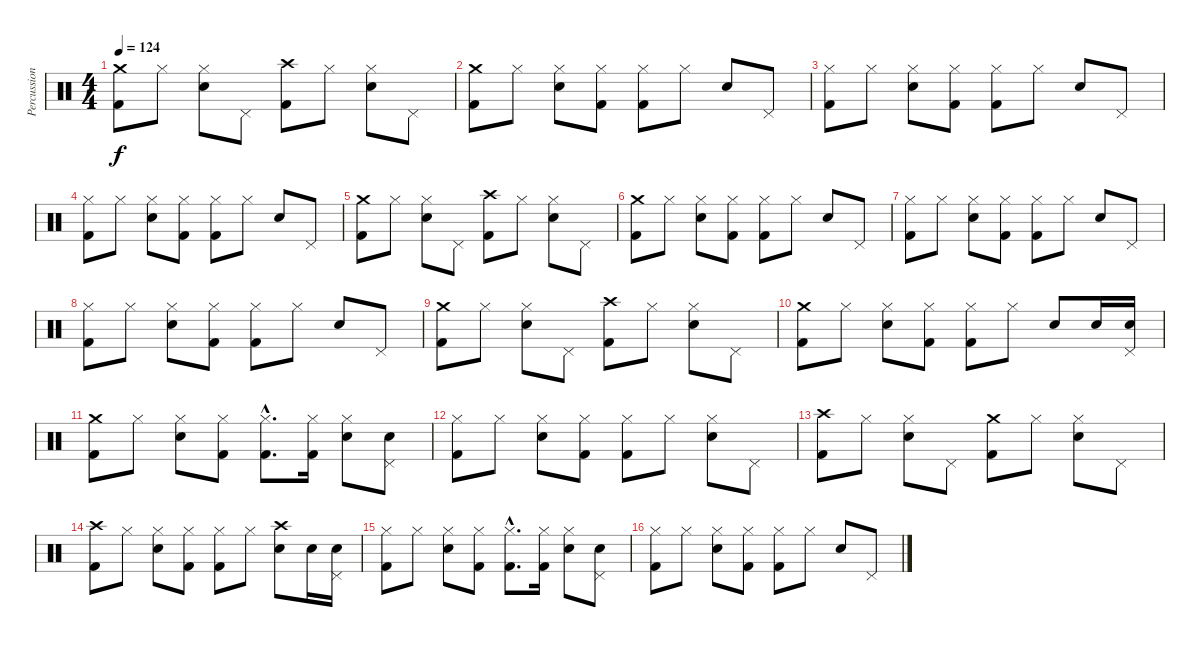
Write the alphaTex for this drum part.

\track ("Percussions" "Percussion") {instrument percussion}
\staff {score}
\articulation defaults
\ts (4 4)
\tempo 124
\clef neutral
\ks c
("Crash medium (hit)" "Kick (hit) 2").8{dy f} "Hi-Hat (closed)".8 ("Hi-Hat (closed)" "Electric Snare (hit)").8 "Pedal Hi-Hat (hit)".8 ("Crash high (hit)" "Kick (hit) 2").8 "Hi-Hat (closed)".8 ("Hi-Hat (closed)" "Electric Snare (hit)").8 "Pedal Hi-Hat (hit)".8 |
("Crash medium (hit)" "Kick (hit) 2").8 "Hi-Hat (closed)".8 ("Hi-Hat (closed)" "Electric Snare (hit)").8 ("Hi-Hat (closed)" "Kick (hit) 2").8 ("Hi-Hat (closed)" "Kick (hit) 2").8 "Hi-Hat (closed)".8 "Electric Snare (hit)".8 "Pedal Hi-Hat (hit)".8 |
("Hi-Hat (closed)" "Kick (hit) 2").8 "Hi-Hat (closed)".8 ("Hi-Hat (closed)" "Electric Snare (hit)").8 ("Hi-Hat (closed)" "Kick (hit) 2").8 ("Hi-Hat (closed)" "Kick (hit) 2").8 "Hi-Hat (closed)".8 "Electric Snare (hit)".8 "Pedal Hi-Hat (hit)".8 |
("Hi-Hat (closed)" "Kick (hit) 2").8 "Hi-Hat (closed)".8 ("Hi-Hat (closed)" "Electric Snare (hit)").8 ("Hi-Hat (closed)" "Kick (hit) 2").8 ("Hi-Hat (closed)" "Kick (hit) 2").8 "Hi-Hat (closed)".8 "Electric Snare (hit)".8 "Pedal Hi-Hat (hit)".8 |
("Crash medium (hit)" "Kick (hit) 2").8 "Hi-Hat (closed)".8 ("Hi-Hat (closed)" "Electric Snare (hit)").8 "Pedal Hi-Hat (hit)".8 ("Crash high (hit)" "Kick (hit) 2").8 "Hi-Hat (closed)".8 ("Hi-Hat (closed)" "Electric Snare (hit)").8 "Pedal Hi-Hat (hit)".8 |
("Crash medium (hit)" "Kick (hit) 2").8 "Hi-Hat (closed)".8 ("Hi-Hat (closed)" "Electric Snare (hit)").8 ("Hi-Hat (closed)" "Kick (hit) 2").8 ("Hi-Hat (closed)" "Kick (hit) 2").8 "Hi-Hat (closed)".8 "Electric Snare (hit)".8 "Pedal Hi-Hat (hit)".8 |
("Hi-Hat (closed)" "Kick (hit) 2").8 "Hi-Hat (closed)".8 ("Hi-Hat (closed)" "Electric Snare (hit)").8 ("Hi-Hat (closed)" "Kick (hit) 2").8 ("Hi-Hat (closed)" "Kick (hit) 2").8 "Hi-Hat (closed)".8 "Electric Snare (hit)".8 "Pedal Hi-Hat (hit)".8 |
("Hi-Hat (closed)" "Kick (hit) 2").8 "Hi-Hat (closed)".8 ("Hi-Hat (closed)" "Electric Snare (hit)").8 ("Hi-Hat (closed)" "Kick (hit) 2").8 ("Hi-Hat (closed)" "Kick (hit) 2").8 "Hi-Hat (closed)".8 "Electric Snare (hit)".8 "Pedal Hi-Hat (hit)".8 |
("Crash medium (hit)" "Kick (hit) 2").8 "Hi-Hat (closed)".8 ("Hi-Hat (closed)" "Electric Snare (hit)").8 "Pedal Hi-Hat (hit)".8 ("Crash high (hit)" "Kick (hit) 2").8 "Hi-Hat (closed)".8 ("Hi-Hat (closed)" "Electric Snare (hit)").8 "Pedal Hi-Hat (hit)".8 |
("Crash medium (hit)" "Kick (hit) 2").8 "Hi-Hat (closed)".8 ("Hi-Hat (closed)" "Electric Snare (hit)").8 ("Hi-Hat (closed)" "Kick (hit) 2").8 ("Hi-Hat (closed)" "Kick (hit) 2").8 "Hi-Hat (closed)".8 "Electric Snare (hit)".8 "Electric Snare (hit)".16 ("Pedal Hi-Hat (hit)" "Electric Snare (hit)").16 |
("Crash medium (hit)" "Kick (hit) 2").8 "Hi-Hat (closed)".8 ("Hi-Hat (closed)" "Electric Snare (hit)").8 ("Hi-Hat (closed)" "Kick (hit) 2").8 ("Hi-Hat (closed)"{hac} "Kick (hit) 2"{hac}).8{d} ("Hi-Hat (closed)" "Kick (hit) 2").16 ("Hi-Hat (closed)" "Electric Snare (hit)").8 ("Pedal Hi-Hat (hit)" "Electric Snare (hit)").8 |
("Hi-Hat (closed)" "Kick (hit) 2").8 "Hi-Hat (closed)".8 ("Hi-Hat (closed)" "Electric Snare (hit)").8 ("Hi-Hat (closed)" "Kick (hit) 2").8 ("Hi-Hat (closed)" "Kick (hit) 2").8 "Hi-Hat (closed)".8 ("Hi-Hat (closed)" "Electric Snare (hit)").8 "Pedal Hi-Hat (hit)".8 |
("Crash high (hit)" "Kick (hit) 2").8 "Hi-Hat (closed)".8 ("Hi-Hat (closed)" "Electric Snare (hit)").8 "Pedal Hi-Hat (hit)".8 ("Crash medium (hit)" "Kick (hit) 2").8 "Hi-Hat (closed)".8 ("Hi-Hat (closed)" "Electric Snare (hit)").8 "Pedal Hi-Hat (hit)".8 |
("Crash high (hit)" "Kick (hit) 2").8 "Hi-Hat (closed)".8 ("Hi-Hat (closed)" "Electric Snare (hit)").8 ("Hi-Hat (closed)" "Kick (hit) 2").8 ("Hi-Hat (closed)" "Kick (hit) 2").8 "Hi-Hat (closed)".8 ("Crash high (hit)" "Electric Snare (hit)").8 "Electric Snare (hit)".16 ("Pedal Hi-Hat (hit)" "Electric Snare (hit)").16 |
("Hi-Hat (closed)" "Kick (hit) 2").8 "Hi-Hat (closed)".8 ("Hi-Hat (closed)" "Electric Snare (hit)").8 ("Hi-Hat (closed)" "Kick (hit) 2").8 ("Hi-Hat (closed)"{hac} "Kick (hit) 2"{hac}).8{d} ("Hi-Hat (closed)" "Kick (hit) 2").16 ("Hi-Hat (closed)" "Electric Snare (hit)").8 ("Pedal Hi-Hat (hit)" "Electric Snare (hit)").8 |
("Hi-Hat (closed)" "Kick (hit) 2").8 "Hi-Hat (closed)".8 ("Hi-Hat (closed)" "Electric Snare (hit)").8 ("Hi-Hat (closed)" "Kick (hit) 2").8 ("Hi-Hat (closed)" "Kick (hit) 2").8 "Hi-Hat (closed)".8 "Electric Snare (hit)".8 "Pedal Hi-Hat (hit)".8
